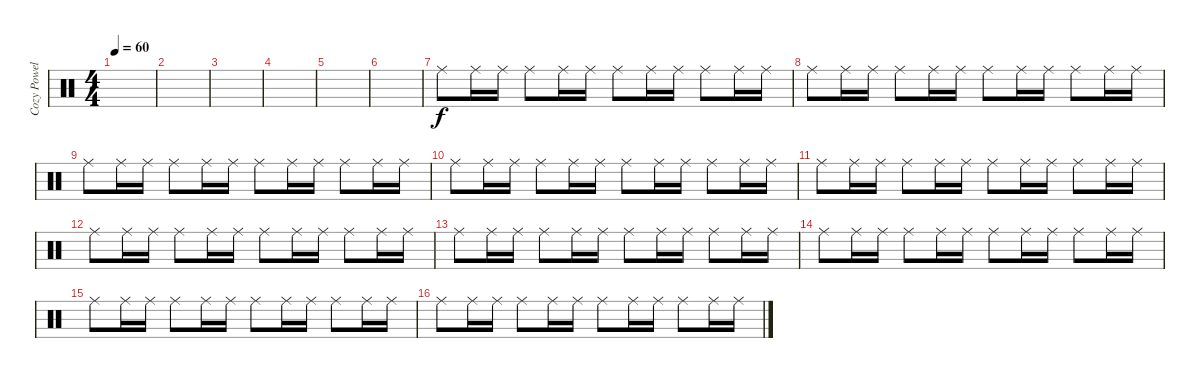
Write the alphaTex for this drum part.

\track ("Cozy Powell(Drums)" "Cozy Powel") {instrument percussion}
\staff {score}
\articulation defaults
\ts (4 4)
\tempo 60
\clef neutral
\ks c
|
|
|
|
|
|
"Ride (middle)".8 "Ride (middle)".16 "Ride (middle)".16 "Ride (middle)".8 "Ride (middle)".16 "Ride (middle)".16 "Ride (middle)".8 "Ride (middle)".16 "Ride (middle)".16 "Ride (middle)".8 "Ride (middle)".16 "Ride (middle)".16 |
"Ride (middle)".8 "Ride (middle)".16 "Ride (middle)".16 "Ride (middle)".8 "Ride (middle)".16 "Ride (middle)".16 "Ride (middle)".8 "Ride (middle)".16 "Ride (middle)".16 "Ride (middle)".8 "Ride (middle)".16 "Ride (middle)".16 |
"Ride (middle)".8 "Ride (middle)".16 "Ride (middle)".16 "Ride (middle)".8 "Ride (middle)".16 "Ride (middle)".16 "Ride (middle)".8 "Ride (middle)".16 "Ride (middle)".16 "Ride (middle)".8 "Ride (middle)".16 "Ride (middle)".16 |
"Ride (middle)".8 "Ride (middle)".16 "Ride (middle)".16 "Ride (middle)".8 "Ride (middle)".16 "Ride (middle)".16 "Ride (middle)".8 "Ride (middle)".16 "Ride (middle)".16 "Ride (middle)".8 "Ride (middle)".16 "Ride (middle)".16 |
"Ride (middle)".8 "Ride (middle)".16 "Ride (middle)".16 "Ride (middle)".8 "Ride (middle)".16 "Ride (middle)".16 "Ride (middle)".8 "Ride (middle)".16 "Ride (middle)".16 "Ride (middle)".8 "Ride (middle)".16 "Ride (middle)".16 |
"Ride (middle)".8 "Ride (middle)".16 "Ride (middle)".16 "Ride (middle)".8 "Ride (middle)".16 "Ride (middle)".16 "Ride (middle)".8 "Ride (middle)".16 "Ride (middle)".16 "Ride (middle)".8 "Ride (middle)".16 "Ride (middle)".16 |
"Ride (middle)".8 "Ride (middle)".16 "Ride (middle)".16 "Ride (middle)".8 "Ride (middle)".16 "Ride (middle)".16 "Ride (middle)".8 "Ride (middle)".16 "Ride (middle)".16 "Ride (middle)".8 "Ride (middle)".16 "Ride (middle)".16 |
"Ride (middle)".8 "Ride (middle)".16 "Ride (middle)".16 "Ride (middle)".8 "Ride (middle)".16 "Ride (middle)".16 "Ride (middle)".8 "Ride (middle)".16 "Ride (middle)".16 "Ride (middle)".8 "Ride (middle)".16 "Ride (middle)".16 |
"Ride (middle)".8 "Ride (middle)".16 "Ride (middle)".16 "Ride (middle)".8 "Ride (middle)".16 "Ride (middle)".16 "Ride (middle)".8 "Ride (middle)".16 "Ride (middle)".16 "Ride (middle)".8 "Ride (middle)".16 "Ride (middle)".16 |
"Ride (middle)".8 "Ride (middle)".16 "Ride (middle)".16 "Ride (middle)".8 "Ride (middle)".16 "Ride (middle)".16 "Ride (middle)".8 "Ride (middle)".16 "Ride (middle)".16 "Ride (middle)".8 "Ride (middle)".16 "Ride (middle)".16
